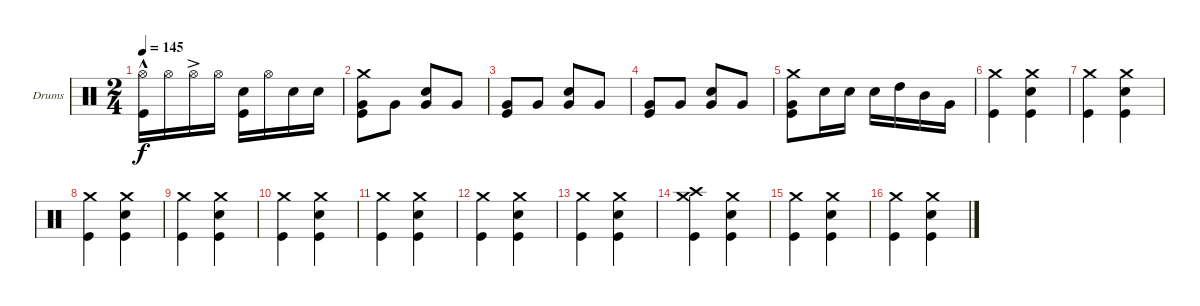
\bracketExtendMode groupsimilarinstruments
\firstSystemTrackNameOrientation horizontal
\otherSystemsTrackNameOrientation horizontal
\track ("Drumkit" "Drums") {instrument percussion}
\staff {score}
\articulation defaults
\ts (2 4)
\tempo 145
\clef neutral
\ks c
("Hi-Hat (open)"{hac} "Kick (hit)").16{dy f} "Hi-Hat (open)".16 "Hi-Hat (open)"{ac}.16 "Hi-Hat (open)".16 ("Snare (hit) 2" "Kick (hit)").16 "Hi-Hat (open)".16 "Snare (hit) 2".16 "Snare (hit) 2".16 |
("Very Low Tom (hit)" "Kick (hit)" "Crash medium (hit)").8 "Very Low Tom (hit)".8 ("Very Low Tom (hit)" "Snare (hit) 2").8 "Very Low Tom (hit)".8 |
("Very Low Tom (hit)" "Kick (hit)").8 "Very Low Tom (hit)".8 ("Very Low Tom (hit)" "Snare (hit) 2").8 "Very Low Tom (hit)".8 |
("Very Low Tom (hit)" "Kick (hit)").8 "Very Low Tom (hit)".8 ("Very Low Tom (hit)" "Snare (hit) 2").8 "Very Low Tom (hit)".8 |
("Crash medium (hit)" "Very Low Tom (hit)" "Kick (hit)").8 "Snare (hit) 2".16 "Snare (hit) 2".16 "Snare (hit) 2".16 "High Tom (hit)".16 "Mid Tom (hit)".16 "Very Low Tom (hit)".16 |
("Crash medium (hit)" "Kick (hit)").4 ("Crash medium (hit)" "Snare (hit) 2" "Kick (hit)").4 |
("Crash medium (hit)" "Kick (hit)").4 ("Crash medium (hit)" "Snare (hit) 2" "Kick (hit)").4 |
("Crash medium (hit)" "Kick (hit)").4 ("Crash medium (hit)" "Snare (hit) 2" "Kick (hit)").4 |
("Crash medium (hit)" "Kick (hit)").4 ("Crash medium (hit)" "Snare (hit) 2" "Kick (hit)").4 |
("Crash medium (hit)" "Kick (hit)").4 ("Crash medium (hit)" "Snare (hit) 2" "Kick (hit)").4 |
("Crash medium (hit)" "Kick (hit)").4 ("Crash medium (hit)" "Snare (hit) 2" "Kick (hit)").4 |
("Crash medium (hit)" "Kick (hit)").4 ("Crash medium (hit)" "Snare (hit) 2" "Kick (hit)").4 |
("Crash medium (hit)" "Kick (hit)").4 ("Crash medium (hit)" "Snare (hit) 2" "Kick (hit)").4 |
("Crash medium (hit)" "Crash high (hit)" "Kick (hit)").4 ("Crash medium (hit)" "Snare (hit) 2" "Kick (hit)").4 |
("Crash medium (hit)" "Kick (hit)").4 ("Crash medium (hit)" "Snare (hit) 2" "Kick (hit)").4 |
("Crash medium (hit)" "Kick (hit)").4 ("Crash medium (hit)" "Snare (hit) 2" "Kick (hit)").4
